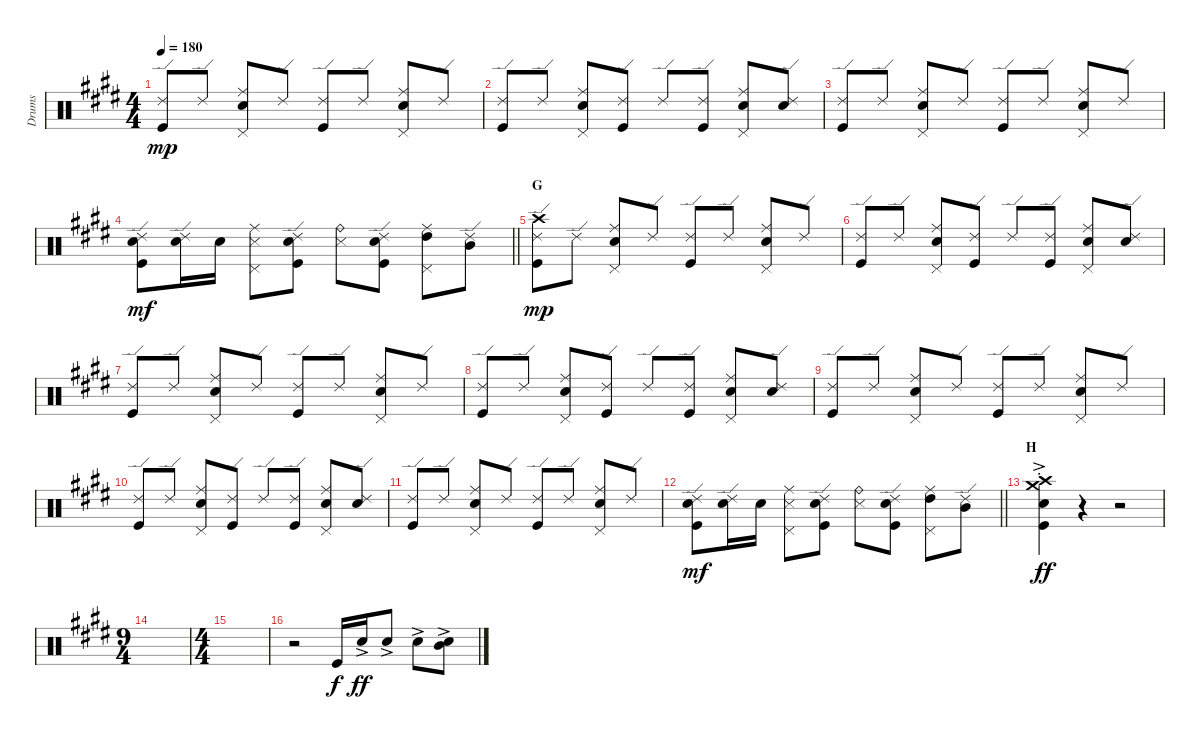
\track ("Drums" "Drums") {instrument percussion}
\staff {score}
\articulation defaults
\ts (4 4)
\tempo 180
\clef neutral
\ks e
("Ride (edge) 2" "Kick (hit)").8{dy mp} "Ride (edge) 2".8 ("Ride (middle)" "Snare (hit) 2" "Pedal Hi-Hat (hit)").8 "Ride (edge) 2".8 ("Ride (edge) 2" "Kick (hit)").8 "Ride (edge) 2".8 ("Ride (middle)" "Snare (hit) 2" "Pedal Hi-Hat (hit)").8 "Ride (edge) 2".8 |
("Ride (edge) 2" "Kick (hit)").8 "Ride (edge) 2".8 ("Ride (middle)" "Snare (hit) 2" "Pedal Hi-Hat (hit)").8 ("Ride (edge) 2" "Kick (hit)").8 "Ride (edge) 2".8 ("Ride (edge) 2" "Kick (hit)").8 ("Ride (middle)" "Snare (hit) 2" "Pedal Hi-Hat (hit)").8 ("Ride (edge) 2" "Snare (hit) 2").8 |
("Ride (edge) 2" "Kick (hit)").8 "Ride (edge) 2".8 ("Ride (middle)" "Snare (hit) 2" "Pedal Hi-Hat (hit)").8 "Ride (edge) 2".8 ("Ride (edge) 2" "Kick (hit)").8 "Ride (edge) 2".8 ("Ride (middle)" "Snare (hit) 2" "Pedal Hi-Hat (hit)").8 "Ride (edge) 2".8 |
\barLineRight lightlight
("Ride (edge) 2" "Snare (hit) 2" "Kick (hit)").8{dy mf} ("Ride (edge) 2" "Snare (hit) 2").16 "Snare (hit) 2".16 ("Ride (middle)" "Snare (side stick) 3" "Pedal Hi-Hat (hit)").8 ("Ride (edge) 2" "Snare (hit) 2" "Kick (hit)").8 ("Ride (bell)" "Snare (side stick) 3").8 ("Ride (edge) 2" "Snare (hit) 2" "Kick (hit)").8 ("Ride (middle)" "High Tom (hit)" "Pedal Hi-Hat (hit)").8 ("Ride (edge) 2" "Mid Tom (hit)").8 |
\section ("" "G")
("Ride (edge) 2" "Crash high (hit)" "Kick (hit)").8{dy mp} "Ride (edge) 2".8 ("Ride (middle)" "Snare (hit) 2" "Pedal Hi-Hat (hit)").8 "Ride (edge) 2".8 ("Ride (edge) 2" "Kick (hit)").8 "Ride (edge) 2".8 ("Ride (middle)" "Snare (hit) 2" "Pedal Hi-Hat (hit)").8 "Ride (edge) 2".8 |
("Ride (edge) 2" "Kick (hit)").8 "Ride (edge) 2".8 ("Ride (middle)" "Snare (hit) 2" "Pedal Hi-Hat (hit)").8 ("Ride (edge) 2" "Kick (hit)").8 "Ride (edge) 2".8 ("Ride (edge) 2" "Kick (hit)").8 ("Ride (middle)" "Snare (hit) 2" "Pedal Hi-Hat (hit)").8 ("Ride (edge) 2" "Snare (hit) 2").8 |
("Ride (edge) 2" "Kick (hit)").8 "Ride (edge) 2".8 ("Ride (middle)" "Snare (hit) 2" "Pedal Hi-Hat (hit)").8 "Ride (edge) 2".8 ("Ride (edge) 2" "Kick (hit)").8 "Ride (edge) 2".8 ("Ride (middle)" "Snare (hit) 2" "Pedal Hi-Hat (hit)").8 "Ride (edge) 2".8 |
("Ride (edge) 2" "Kick (hit)").8 "Ride (edge) 2".8 ("Ride (middle)" "Snare (hit) 2" "Pedal Hi-Hat (hit)").8 ("Ride (edge) 2" "Kick (hit)").8 "Ride (edge) 2".8 ("Ride (edge) 2" "Kick (hit)").8 ("Ride (middle)" "Snare (hit) 2" "Pedal Hi-Hat (hit)").8 ("Ride (edge) 2" "Snare (hit) 2").8 |
("Ride (edge) 2" "Kick (hit)").8 "Ride (edge) 2".8 ("Ride (middle)" "Snare (hit) 2" "Pedal Hi-Hat (hit)").8 "Ride (edge) 2".8 ("Ride (edge) 2" "Kick (hit)").8 "Ride (edge) 2".8 ("Ride (middle)" "Snare (hit) 2" "Pedal Hi-Hat (hit)").8 "Ride (edge) 2".8 |
("Ride (edge) 2" "Kick (hit)").8 "Ride (edge) 2".8 ("Ride (middle)" "Snare (hit) 2" "Pedal Hi-Hat (hit)").8 ("Ride (edge) 2" "Kick (hit)").8 "Ride (edge) 2".8 ("Ride (edge) 2" "Kick (hit)").8 ("Ride (middle)" "Snare (hit) 2" "Pedal Hi-Hat (hit)").8 ("Ride (edge) 2" "Snare (hit) 2").8 |
("Ride (edge) 2" "Kick (hit)").8 "Ride (edge) 2".8 ("Ride (middle)" "Snare (hit) 2" "Pedal Hi-Hat (hit)").8 "Ride (edge) 2".8 ("Ride (edge) 2" "Kick (hit)").8 "Ride (edge) 2".8 ("Ride (middle)" "Snare (hit) 2" "Pedal Hi-Hat (hit)").8 "Ride (edge) 2".8 |
\barLineRight lightlight
("Ride (edge) 2" "Snare (hit) 2" "Kick (hit)").8{dy mf} ("Ride (edge) 2" "Snare (hit) 2").16 "Snare (hit) 2".16 ("Ride (middle)" "Snare (side stick) 3" "Pedal Hi-Hat (hit)").8 ("Ride (edge) 2" "Snare (hit) 2" "Kick (hit)").8 ("Ride (bell)" "Snare (side stick) 3").8 ("Ride (edge) 2" "Snare (hit) 2" "Kick (hit)").8 ("Ride (middle)" "High Tom (hit)" "Pedal Hi-Hat (hit)").8 ("Ride (edge) 2" "Mid Tom (hit)").8 |
\section ("" "H")
("Crash high (hit)"{ac st} "Crash medium (hit)"{ac st} "Snare (hit) 2"{ac st} "Kick (hit)"{ac st}).4{dy ff} r.4 r.2 |
\ts (9 4)
|
\ts (4 4)
|
r.2 "Kick (hit)".16{dy f} "Snare (hit) 2"{ac}.16{dy ff} "Snare (hit) 2"{ac}.8 "Snare (hit) 2"{ac}.8 ("Mid Tom (hit)"{ac} "Snare (hit) 2").8
